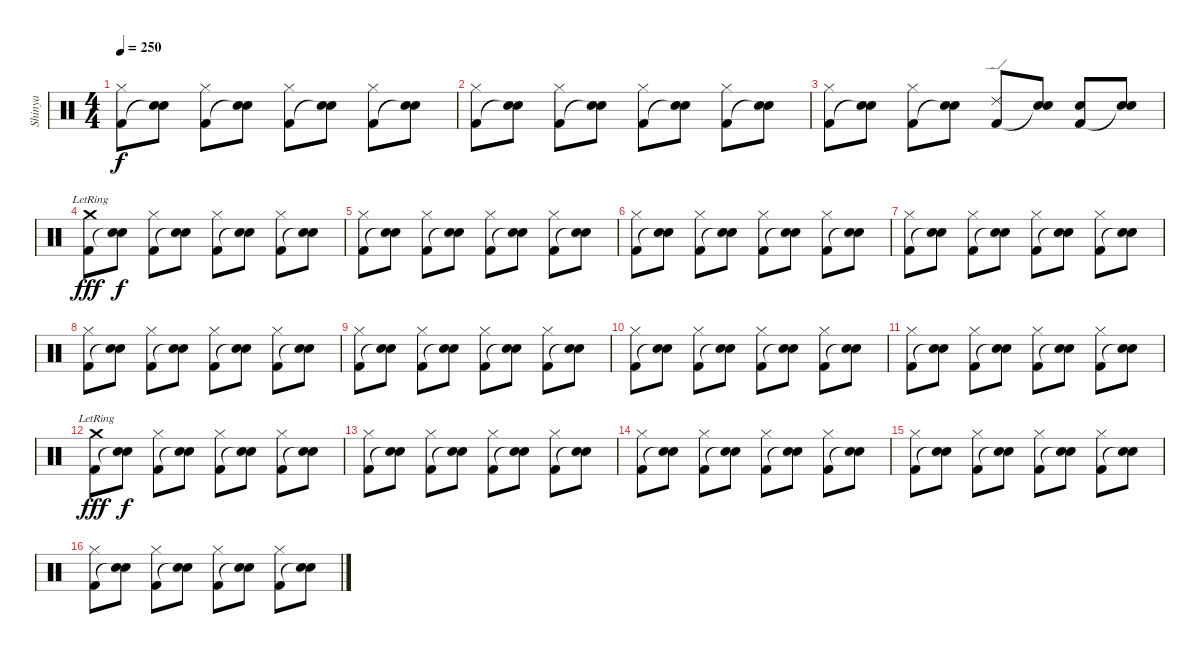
\track ("Shinya" "Shinya") {instrument percussion}
\staff {score}
\articulation defaults
\ts (4 4)
\tempo 250
\clef neutral
\ks c
("Hi-Hat (closed)" "Kick (hit) 2").8{dy f} ("Electric Snare (hit)" "Snare (hit)"{t}).8 ("Hi-Hat (closed)" "Kick (hit) 2").8 ("Electric Snare (hit)" "Snare (hit)"{t}).8 ("Hi-Hat (closed)" "Kick (hit) 2").8 ("Electric Snare (hit)" "Snare (hit)"{t}).8 ("Hi-Hat (closed)" "Kick (hit) 2").8 ("Electric Snare (hit)" "Snare (hit)"{t}).8 |
("Hi-Hat (closed)" "Kick (hit) 2").8 ("Electric Snare (hit)" "Snare (hit)"{t}).8 ("Hi-Hat (closed)" "Kick (hit) 2").8 ("Electric Snare (hit)" "Snare (hit)"{t}).8 ("Hi-Hat (closed)" "Kick (hit) 2").8 ("Electric Snare (hit)" "Snare (hit)"{t}).8 ("Hi-Hat (closed)" "Kick (hit) 2").8 ("Electric Snare (hit)" "Snare (hit)"{t}).8 |
("Hi-Hat (closed)" "Kick (hit) 2").8 ("Electric Snare (hit)" "Snare (hit)"{t}).8 ("Hi-Hat (closed)" "Kick (hit) 2").8 ("Electric Snare (hit)" "Snare (hit)"{t}).8 ("Ride (edge) 2" "Kick (hit) 2").8 ("Electric Snare (hit)" "Snare (hit)"{t}).8 ("Electric Snare (hit)" "Kick (hit) 2").8 ("Electric Snare (hit)" "Snare (hit)"{t}).8 |
("Crash medium (hit)"{lr} "Kick (hit) 2").8{dy fff} ("Electric Snare (hit)" "Snare (hit)"{t}).8{dy f} ("Hi-Hat (closed)" "Kick (hit) 2").8 ("Electric Snare (hit)" "Snare (hit)"{t}).8 ("Hi-Hat (closed)" "Kick (hit) 2").8 ("Electric Snare (hit)" "Snare (hit)"{t}).8 ("Hi-Hat (closed)" "Kick (hit) 2").8 ("Electric Snare (hit)" "Snare (hit)"{t}).8 |
("Hi-Hat (closed)" "Kick (hit) 2").8 ("Electric Snare (hit)" "Snare (hit)"{t}).8 ("Hi-Hat (closed)" "Kick (hit) 2").8 ("Electric Snare (hit)" "Snare (hit)"{t}).8 ("Hi-Hat (closed)" "Kick (hit) 2").8 ("Electric Snare (hit)" "Snare (hit)"{t}).8 ("Hi-Hat (closed)" "Kick (hit) 2").8 ("Electric Snare (hit)" "Snare (hit)"{t}).8 |
("Hi-Hat (closed)" "Kick (hit) 2").8 ("Electric Snare (hit)" "Snare (hit)"{t}).8 ("Hi-Hat (closed)" "Kick (hit) 2").8 ("Electric Snare (hit)" "Snare (hit)"{t}).8 ("Hi-Hat (closed)" "Kick (hit) 2").8 ("Electric Snare (hit)" "Snare (hit)"{t}).8 ("Hi-Hat (closed)" "Kick (hit) 2").8 ("Electric Snare (hit)" "Snare (hit)"{t}).8 |
("Hi-Hat (closed)" "Kick (hit) 2").8 ("Electric Snare (hit)" "Snare (hit)"{t}).8 ("Hi-Hat (closed)" "Kick (hit) 2").8 ("Electric Snare (hit)" "Snare (hit)"{t}).8 ("Hi-Hat (closed)" "Kick (hit) 2").8 ("Electric Snare (hit)" "Snare (hit)"{t}).8 ("Hi-Hat (closed)" "Kick (hit) 2").8 ("Electric Snare (hit)" "Snare (hit)"{t}).8 |
("Hi-Hat (closed)" "Kick (hit) 2").8 ("Electric Snare (hit)" "Snare (hit)"{t}).8 ("Hi-Hat (closed)" "Kick (hit) 2").8 ("Electric Snare (hit)" "Snare (hit)"{t}).8 ("Hi-Hat (closed)" "Kick (hit) 2").8 ("Electric Snare (hit)" "Snare (hit)"{t}).8 ("Hi-Hat (closed)" "Kick (hit) 2").8 ("Electric Snare (hit)" "Snare (hit)"{t}).8 |
("Hi-Hat (closed)" "Kick (hit) 2").8 ("Electric Snare (hit)" "Snare (hit)"{t}).8 ("Hi-Hat (closed)" "Kick (hit) 2").8 ("Electric Snare (hit)" "Snare (hit)"{t}).8 ("Hi-Hat (closed)" "Kick (hit) 2").8 ("Electric Snare (hit)" "Snare (hit)"{t}).8 ("Hi-Hat (closed)" "Kick (hit) 2").8 ("Electric Snare (hit)" "Snare (hit)"{t}).8 |
("Hi-Hat (closed)" "Kick (hit) 2").8 ("Electric Snare (hit)" "Snare (hit)"{t}).8 ("Hi-Hat (closed)" "Kick (hit) 2").8 ("Electric Snare (hit)" "Snare (hit)"{t}).8 ("Hi-Hat (closed)" "Kick (hit) 2").8 ("Electric Snare (hit)" "Snare (hit)"{t}).8 ("Hi-Hat (closed)" "Kick (hit) 2").8 ("Electric Snare (hit)" "Snare (hit)"{t}).8 |
("Hi-Hat (closed)" "Kick (hit) 2").8 ("Electric Snare (hit)" "Snare (hit)"{t}).8 ("Hi-Hat (closed)" "Kick (hit) 2").8 ("Electric Snare (hit)" "Snare (hit)"{t}).8 ("Hi-Hat (closed)" "Kick (hit) 2").8 ("Electric Snare (hit)" "Snare (hit)"{t}).8 ("Hi-Hat (closed)" "Kick (hit) 2").8 ("Electric Snare (hit)" "Snare (hit)"{t}).8 |
("Crash medium (hit)"{lr} "Kick (hit) 2").8{dy fff} ("Electric Snare (hit)" "Snare (hit)"{t}).8{dy f} ("Hi-Hat (closed)" "Kick (hit) 2").8 ("Electric Snare (hit)" "Snare (hit)"{t}).8 ("Hi-Hat (closed)" "Kick (hit) 2").8 ("Electric Snare (hit)" "Snare (hit)"{t}).8 ("Hi-Hat (closed)" "Kick (hit) 2").8 ("Electric Snare (hit)" "Snare (hit)"{t}).8 |
("Hi-Hat (closed)" "Kick (hit) 2").8 ("Electric Snare (hit)" "Snare (hit)"{t}).8 ("Hi-Hat (closed)" "Kick (hit) 2").8 ("Electric Snare (hit)" "Snare (hit)"{t}).8 ("Hi-Hat (closed)" "Kick (hit) 2").8 ("Electric Snare (hit)" "Snare (hit)"{t}).8 ("Hi-Hat (closed)" "Kick (hit) 2").8 ("Electric Snare (hit)" "Snare (hit)"{t}).8 |
("Hi-Hat (closed)" "Kick (hit) 2").8 ("Electric Snare (hit)" "Snare (hit)"{t}).8 ("Hi-Hat (closed)" "Kick (hit) 2").8 ("Electric Snare (hit)" "Snare (hit)"{t}).8 ("Hi-Hat (closed)" "Kick (hit) 2").8 ("Electric Snare (hit)" "Snare (hit)"{t}).8 ("Hi-Hat (closed)" "Kick (hit) 2").8 ("Electric Snare (hit)" "Snare (hit)"{t}).8 |
("Hi-Hat (closed)" "Kick (hit) 2").8 ("Electric Snare (hit)" "Snare (hit)"{t}).8 ("Hi-Hat (closed)" "Kick (hit) 2").8 ("Electric Snare (hit)" "Snare (hit)"{t}).8 ("Hi-Hat (closed)" "Kick (hit) 2").8 ("Electric Snare (hit)" "Snare (hit)"{t}).8 ("Hi-Hat (closed)" "Kick (hit) 2").8 ("Electric Snare (hit)" "Snare (hit)"{t}).8 |
("Hi-Hat (closed)" "Kick (hit) 2").8 ("Electric Snare (hit)" "Snare (hit)"{t}).8 ("Hi-Hat (closed)" "Kick (hit) 2").8 ("Electric Snare (hit)" "Snare (hit)"{t}).8 ("Hi-Hat (closed)" "Kick (hit) 2").8 ("Electric Snare (hit)" "Snare (hit)"{t}).8 ("Hi-Hat (closed)" "Kick (hit) 2").8 ("Electric Snare (hit)" "Snare (hit)"{t}).8
